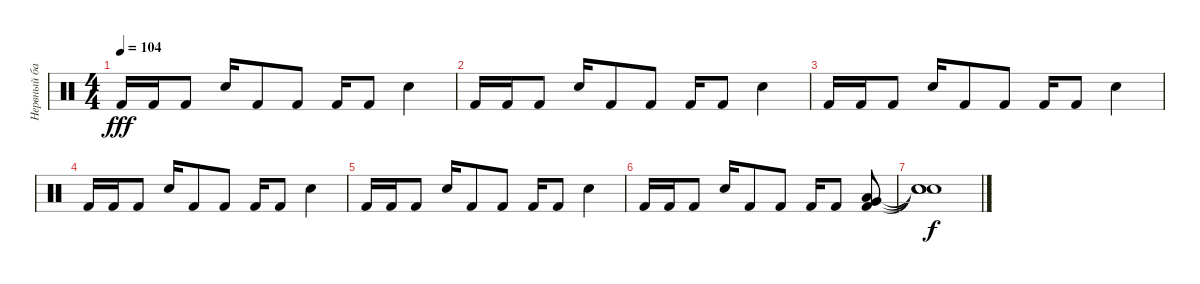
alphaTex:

\track ("Нервный барабанщик" "Нервный ба") {instrument percussion}
\staff {score}
\articulation defaults
\ts (4 4)
\tempo 104
\clef neutral
\ks c "Kick (hit) 2".16{dy fff} "Kick (hit) 2".16 "Kick (hit) 2".8 "Snare (hit) 2".16 "Kick (hit) 2".8 "Kick (hit) 2".8 "Kick (hit) 2".16 "Kick (hit) 2".8 "Snare (hit) 2".4
|
"Kick (hit) 2".16 "Kick (hit) 2".16 "Kick (hit) 2".8 "Snare (hit) 2".16 "Kick (hit) 2".8 "Kick (hit) 2".8 "Kick (hit) 2".16 "Kick (hit) 2".8 "Snare (hit) 2".4 |
"Kick (hit) 2".16 "Kick (hit) 2".16 "Kick (hit) 2".8 "Snare (hit) 2".16 "Kick (hit) 2".8 "Kick (hit) 2".8 "Kick (hit) 2".16 "Kick (hit) 2".8 "Snare (hit) 2".4 |
"Kick (hit) 2".16 "Kick (hit) 2".16 "Kick (hit) 2".8 "Snare (hit) 2".16 "Kick (hit) 2".8 "Kick (hit) 2".8 "Kick (hit) 2".16 "Kick (hit) 2".8 "Snare (hit) 2".4 |
"Kick (hit) 2".16 "Kick (hit) 2".16 "Kick (hit) 2".8 "Snare (hit) 2".16 "Kick (hit) 2".8 "Kick (hit) 2".8 "Kick (hit) 2".16 "Kick (hit) 2".8 "Snare (hit) 2".4 |
"Kick (hit) 2".16 "Kick (hit) 2".16 "Kick (hit) 2".8 "Snare (hit) 2".16 "Kick (hit) 2".8 "Kick (hit) 2".8 "Kick (hit) 2".16 "Kick (hit) 2".8 ("Very Low Tom (hit)" "Low Floor Tom (hit)" "Kick (hit) 2").8 |
("Snare (hit)"{t} "Snare (hit)"{t} "Snare (hit)"{t}).1{dy f}
